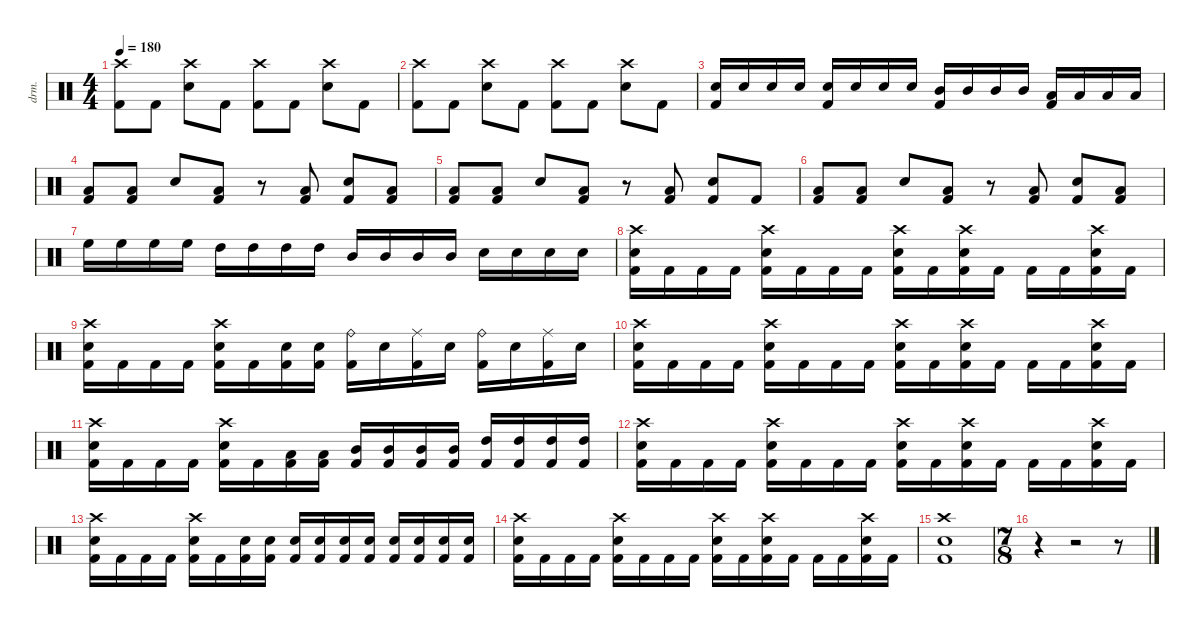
\defaultSystemsLayout 4
\hideDynamics
\bracketExtendMode nobrackets
\otherSystemsTrackNameOrientation horizontal
\track ("Joosep" "drm.") {mute instrument percussion}
\staff {score}
\articulation defaults
\ts (4 4)
\tempo 180
\clef neutral
\ks c
("Crash high (hit)" "Kick (hit) 2").8{dy f beam Down} "Kick (hit) 2".8{beam Down} ("Crash high (hit)" "Snare (hit) 2").8{beam Down} "Kick (hit) 2".8{beam Down} ("Crash high (hit)" "Kick (hit) 2").8{beam Down} "Kick (hit) 2".8{beam Down} ("Crash high (hit)" "Snare (hit) 2").8{beam Down} "Kick (hit) 2".8{beam Down} |
("Crash high (hit)" "Kick (hit) 2").8{beam Down} "Kick (hit) 2".8{beam Down} ("Crash high (hit)" "Snare (hit) 2").8{beam Down} "Kick (hit) 2".8{beam Down} ("Crash high (hit)" "Kick (hit) 2").8{beam Down} "Kick (hit) 2".8{beam Down} ("Crash high (hit)" "Snare (hit) 2").8{beam Down} "Kick (hit) 2".8{beam Down} |
("Snare (hit) 2" "Kick (hit) 2").16{beam Up} "Snare (hit) 2".16{beam Up} "Snare (hit) 2".16{beam Up} "Snare (hit) 2".16{beam Up} ("Snare (hit) 2" "Kick (hit) 2").16{beam Up} "Snare (hit) 2".16{beam Up} "Snare (hit) 2".16{beam Up} "Snare (hit) 2".16{beam Up} ("Mid Tom (hit)" "Kick (hit) 2").16{beam Up} "Mid Tom (hit)".16{beam Up} "Mid Tom (hit)".16{beam Up} "Mid Tom (hit)".16{beam Up} ("Low Tom (hit)" "Kick (hit) 2").16{beam Up} "Low Tom (hit)".16{beam Up} "Low Tom (hit)".16{beam Up} "Low Tom (hit)".16{beam Up} |
("Kick (hit) 2" "Low Tom (hit)").8{beam Up} ("Kick (hit) 2" "Low Tom (hit)").8{beam Up} "Snare (hit) 2".8{beam Up} ("Kick (hit) 2" "Low Tom (hit)").8{beam Up} r.8{beam Up} ("Kick (hit) 2" "Low Tom (hit)").8{beam Up} ("Snare (hit) 2" "Kick (hit) 2").8{beam Up} ("Kick (hit) 2" "Low Tom (hit)").8{beam Up} |
("Kick (hit) 2" "Low Tom (hit)").8{beam Up} ("Kick (hit) 2" "Low Tom (hit)").8{beam Up} "Snare (hit) 2".8{beam Up} ("Kick (hit) 2" "Low Tom (hit)").8{beam Up} r.8{beam Up} ("Kick (hit) 2" "Low Tom (hit)").8{beam Up} ("Snare (hit) 2" "Kick (hit) 2").8{beam Up} "Kick (hit) 2".8{beam Up} |
("Kick (hit) 2" "Low Tom (hit)").8{beam Up} ("Kick (hit) 2" "Low Tom (hit)").8{beam Up} "Snare (hit) 2".8{beam Up} ("Kick (hit) 2" "Low Tom (hit)").8{beam Up} r.8{beam Up} ("Kick (hit) 2" "Low Tom (hit)").8{beam Up} ("Snare (hit) 2" "Kick (hit) 2").8{beam Up} ("Kick (hit) 2" "Low Tom (hit)").8{beam Up} |
"High Floor Tom (hit)".16{beam Down} "High Floor Tom (hit)".16{beam Down} "High Floor Tom (hit)".16{beam Down} "High Floor Tom (hit)".16{beam Down} "High Tom (hit)".16{beam Down} "High Tom (hit)".16{beam Down} "High Tom (hit)".16{beam Down} "High Tom (hit)".16{beam Down} "Mid Tom (hit)".16{beam Up} "Mid Tom (hit)".16{beam Up} "Mid Tom (hit)".16{beam Up} "Mid Tom (hit)".16{beam Up} "Snare (hit) 2".16{beam Down} "Snare (hit) 2".16{beam Down} "Snare (hit) 2".16{beam Down} "Snare (hit) 2".16{beam Down} |
("Crash high (hit)" "Snare (hit) 2" "Kick (hit) 2").16{beam Down} "Kick (hit) 2".16{beam Down} "Kick (hit) 2".16{beam Down} "Kick (hit) 2".16{beam Down} ("Crash high (hit)" "Snare (hit) 2" "Kick (hit) 2").16{beam Down} "Kick (hit) 2".16{beam Down} "Kick (hit) 2".16{beam Down} "Kick (hit) 2".16{beam Down} ("Crash high (hit)" "Snare (hit) 2" "Kick (hit) 2").16{beam Down} "Kick (hit) 2".16{beam Down} ("Crash high (hit)" "Snare (hit) 2" "Kick (hit) 2").16{beam Down} "Kick (hit) 2".16{beam Down} "Kick (hit) 2".16{beam Down} "Kick (hit) 2".16{beam Down} ("Crash high (hit)" "Snare (hit) 2" "Kick (hit) 2").16{beam Down} "Kick (hit) 2".16{beam Down} |
("Crash high (hit)" "Snare (hit) 2" "Kick (hit) 2").16{beam Down} "Kick (hit) 2".16{beam Down} "Kick (hit) 2".16{beam Down} "Kick (hit) 2".16{beam Down} ("Crash high (hit)" "Snare (hit) 2" "Kick (hit) 2").16{beam Down} "Kick (hit) 2".16{beam Down} ("Snare (hit) 2" "Kick (hit) 2").16{beam Down} ("Snare (hit) 2" "Kick (hit) 2").16{beam Down} ("Ride (bell)" "Kick (hit) 2").16{beam Down} "Snare (hit) 2".16{beam Down} ("Kick (hit) 2" "Ride (middle)").16{beam Down} "Snare (hit) 2".16{beam Down} ("Kick (hit) 2" "Ride (bell)").16{beam Down} "Snare (hit) 2".16{beam Down} ("Kick (hit) 2" "Ride (middle)").16{beam Down} "Snare (hit) 2".16{beam Down} |
("Crash high (hit)" "Snare (hit) 2" "Kick (hit) 2").16{beam Down} "Kick (hit) 2".16{beam Down} "Kick (hit) 2".16{beam Down} "Kick (hit) 2".16{beam Down} ("Crash high (hit)" "Snare (hit) 2" "Kick (hit) 2").16{beam Down} "Kick (hit) 2".16{beam Down} "Kick (hit) 2".16{beam Down} "Kick (hit) 2".16{beam Down} ("Crash high (hit)" "Snare (hit) 2" "Kick (hit) 2").16{beam Down} "Kick (hit) 2".16{beam Down} ("Crash high (hit)" "Snare (hit) 2" "Kick (hit) 2").16{beam Down} "Kick (hit) 2".16{beam Down} "Kick (hit) 2".16{beam Down} "Kick (hit) 2".16{beam Down} ("Crash high (hit)" "Snare (hit) 2" "Kick (hit) 2").16{beam Down} "Kick (hit) 2".16{beam Down} |
("Crash high (hit)" "Snare (hit) 2" "Kick (hit) 2").16{beam Down} "Kick (hit) 2".16{beam Down} "Kick (hit) 2".16{beam Down} "Kick (hit) 2".16{beam Down} ("Crash high (hit)" "Snare (hit) 2" "Kick (hit) 2").16{beam Down} "Kick (hit) 2".16{beam Down} ("Low Tom (hit)" "Kick (hit) 2").16{beam Down} ("Low Tom (hit)" "Kick (hit) 2").16{beam Down} ("Mid Tom (hit)" "Kick (hit) 2").16{beam Up} ("Mid Tom (hit)" "Kick (hit) 2").16{beam Up} ("Mid Tom (hit)" "Kick (hit) 2").16{beam Up} ("Mid Tom (hit)" "Kick (hit) 2").16{beam Up} ("High Tom (hit)" "Kick (hit) 2").16{beam Up} ("High Tom (hit)" "Kick (hit) 2").16{beam Up} ("High Tom (hit)" "Kick (hit) 2").16{beam Up} ("High Tom (hit)" "Kick (hit) 2").16{beam Up} |
("Crash high (hit)" "Snare (hit) 2" "Kick (hit) 2").16{beam Down} "Kick (hit) 2".16{beam Down} "Kick (hit) 2".16{beam Down} "Kick (hit) 2".16{beam Down} ("Crash high (hit)" "Snare (hit) 2" "Kick (hit) 2").16{beam Down} "Kick (hit) 2".16{beam Down} "Kick (hit) 2".16{beam Down} "Kick (hit) 2".16{beam Down} ("Crash high (hit)" "Snare (hit) 2" "Kick (hit) 2").16{beam Down} "Kick (hit) 2".16{beam Down} ("Crash high (hit)" "Snare (hit) 2" "Kick (hit) 2").16{beam Down} "Kick (hit) 2".16{beam Down} "Kick (hit) 2".16{beam Down} "Kick (hit) 2".16{beam Down} ("Crash high (hit)" "Snare (hit) 2" "Kick (hit) 2").16{beam Down} "Kick (hit) 2".16{beam Down} |
("Crash high (hit)" "Snare (hit) 2" "Kick (hit) 2").16{beam Down} "Kick (hit) 2".16{beam Down} "Kick (hit) 2".16{beam Down} "Kick (hit) 2".16{beam Down} ("Crash high (hit)" "Snare (hit) 2" "Kick (hit) 2").16{beam Down} "Kick (hit) 2".16{beam Down} ("Snare (hit) 2" "Kick (hit) 2").16{beam Down} ("Snare (hit) 2" "Kick (hit) 2").16{beam Down} ("Snare (hit) 2" "Kick (hit) 2").16{beam Up} ("Snare (hit) 2" "Kick (hit) 2").16{beam Up} ("Snare (hit) 2" "Kick (hit) 2").16{beam Up} ("Snare (hit) 2" "Kick (hit) 2").16{beam Up} ("Snare (hit) 2" "Kick (hit) 2").16{beam Up} ("Snare (hit) 2" "Kick (hit) 2").16{beam Up} ("Snare (hit) 2" "Kick (hit) 2").16{beam Up} ("Snare (hit) 2" "Kick (hit) 2").16{beam Up} |
("Crash high (hit)" "Snare (hit) 2" "Kick (hit) 2").16{beam Down} "Kick (hit) 2".16{beam Down} "Kick (hit) 2".16{beam Down} "Kick (hit) 2".16{beam Down} ("Crash high (hit)" "Snare (hit) 2" "Kick (hit) 2").16{beam Down} "Kick (hit) 2".16{beam Down} "Kick (hit) 2".16{beam Down} "Kick (hit) 2".16{beam Down} ("Crash high (hit)" "Snare (hit) 2" "Kick (hit) 2").16{beam Down} "Kick (hit) 2".16{beam Down} ("Crash high (hit)" "Snare (hit) 2" "Kick (hit) 2").16{beam Down} "Kick (hit) 2".16{beam Down} "Kick (hit) 2".16{beam Down} "Kick (hit) 2".16{beam Down} ("Crash high (hit)" "Snare (hit) 2" "Kick (hit) 2").16{beam Down} "Kick (hit) 2".16{beam Down} |
("Crash high (hit)" "Snare (hit) 2" "Kick (hit) 2").1{beam Down} |
\ts (7 8)
\beaming (8 2 2 2 2)
r.4{beam Down} r.2{beam Down} r.8{beam Down}
